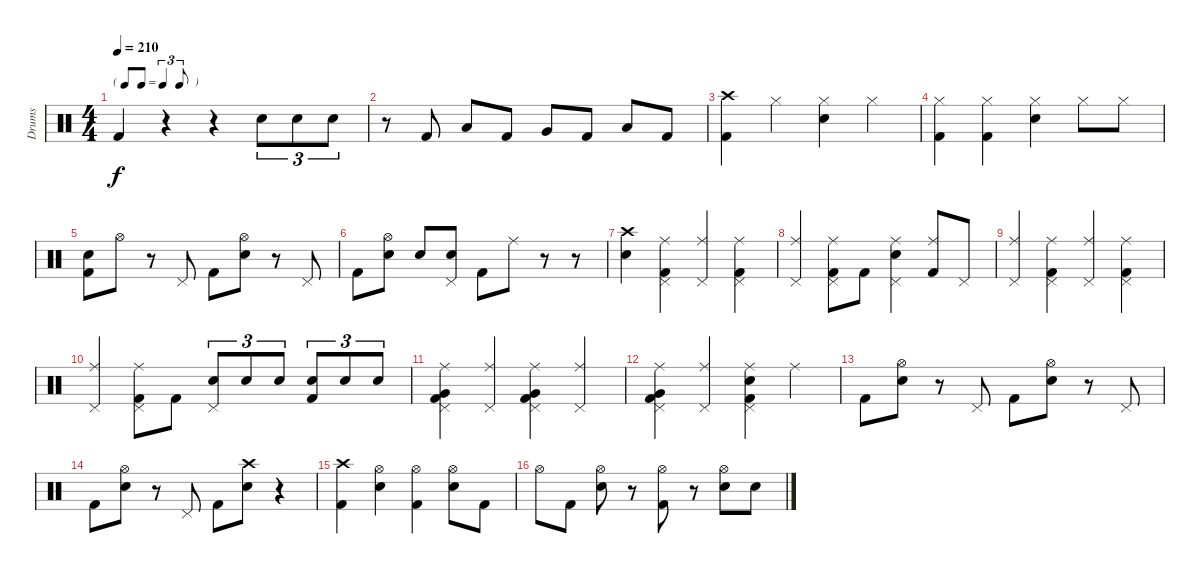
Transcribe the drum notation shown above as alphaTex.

\track ("Drums" "Drums") {instrument percussion}
\staff {score}
\articulation defaults
\ts (4 4)
\tf triplet8th
\tempo 210
\clef neutral
\ks c "Kick (hit) 2".4{dy f}
r.4 r.4 "Snare (hit) 2".8{tu (3 2)} "Snare (hit) 2".8{tu (3 2)} "Snare (hit) 2".8{tu (3 2)} |
r.8 "Kick (hit) 2".8 "Low Tom (hit)".8 "Kick (hit) 2".8 "Very Low Tom (hit)".8 "Kick (hit) 2".8 "Low Floor Tom (hit)".8 "Kick (hit) 2".8 |
("Crash high (hit)" "Kick (hit) 2").4 "Hi-Hat (closed)".4 ("Hi-Hat (closed)" "Snare (hit) 2").4 "Hi-Hat (closed)".4 |
("Hi-Hat (closed)" "Kick (hit) 2").4 ("Hi-Hat (closed)" "Kick (hit) 2").4 ("Hi-Hat (closed)" "Snare (hit) 2").4 "Hi-Hat (closed)".8 "Hi-Hat (closed)".8 |
("Snare (hit) 2" "Kick (hit) 2").8 "Hi-Hat (open)".8 r.8 "Pedal Hi-Hat (hit)".8 "Kick (hit) 2".8 ("Hi-Hat (open)" "Snare (hit) 2").8 r.8 "Pedal Hi-Hat (hit)".8 |
"Kick (hit) 2".8 ("Hi-Hat (open)" "Snare (hit) 2").8 "Snare (hit) 2".8 ("Pedal Hi-Hat (hit)" "Snare (hit) 2").8 "Kick (hit) 2".8 "Ride (middle)".8 r.8 r.8 |
("Crash high (hit)" "Snare (hit) 2").4 ("Ride (middle)" "Pedal Hi-Hat (hit)" "Kick (hit) 2").4 ("Ride (middle)" "Pedal Hi-Hat (hit)").4 ("Ride (middle)" "Pedal Hi-Hat (hit)" "Kick (hit) 2").4 |
("Ride (middle)" "Pedal Hi-Hat (hit)").4 ("Ride (middle)" "Pedal Hi-Hat (hit)" "Kick (hit) 2").8 "Kick (hit) 2".8 ("Ride (middle)" "Pedal Hi-Hat (hit)" "Snare (hit) 2").4 ("Ride (middle)" "Kick (hit) 2").8 "Pedal Hi-Hat (hit)".8 |
("Ride (middle)" "Pedal Hi-Hat (hit)").4 ("Ride (middle)" "Pedal Hi-Hat (hit)" "Kick (hit) 2").4 ("Ride (middle)" "Pedal Hi-Hat (hit)").4 ("Ride (middle)" "Pedal Hi-Hat (hit)" "Kick (hit) 2").4 |
("Ride (middle)" "Pedal Hi-Hat (hit)").4 ("Ride (middle)" "Pedal Hi-Hat (hit)" "Kick (hit) 2").8 "Kick (hit) 2".8 ("Pedal Hi-Hat (hit)" "Snare (hit) 2").8{tu (3 2)} "Snare (hit) 2".8{tu (3 2)} "Snare (hit) 2".8{tu (3 2)} ("Snare (hit) 2" "Kick (hit) 2").8{tu (3 2)} "Snare (hit) 2".8{tu (3 2)} "Snare (hit) 2".8{tu (3 2)} |
("Ride (middle)" "Pedal Hi-Hat (hit)" "Very Low Tom (hit)" "Kick (hit) 2").4 ("Ride (middle)" "Pedal Hi-Hat (hit)").4 ("Ride (middle)" "Pedal Hi-Hat (hit)" "Very Low Tom (hit)" "Kick (hit) 2").4 ("Ride (middle)" "Pedal Hi-Hat (hit)").4 |
("Ride (middle)" "Pedal Hi-Hat (hit)" "Very Low Tom (hit)" "Kick (hit) 2").4 ("Ride (middle)" "Pedal Hi-Hat (hit)").4 ("Ride (middle)" "Pedal Hi-Hat (hit)" "Snare (hit) 2" "Kick (hit) 2").4 "Ride (middle)".4 |
"Kick (hit) 2".8 ("Hi-Hat (open)" "Snare (hit) 2").8 r.8 "Pedal Hi-Hat (hit)".8 "Kick (hit) 2".8 ("Hi-Hat (open)" "Snare (hit) 2").8 r.8 "Pedal Hi-Hat (hit)".8 |
"Kick (hit) 2".8 ("Hi-Hat (open)" "Snare (hit) 2").8 r.8 "Pedal Hi-Hat (hit)".8 "Kick (hit) 2".8 ("Crash high (hit)" "Snare (hit) 2").8 r.4 |
("Crash high (hit)" "Kick (hit) 2").4 ("Hi-Hat (open)" "Snare (hit) 2").4 ("Hi-Hat (open)" "Kick (hit) 2").4 ("Hi-Hat (open)" "Snare (hit) 2").8 "Kick (hit) 2".8 |
"Hi-Hat (open)".8 "Kick (hit) 2".8 ("Hi-Hat (open)" "Snare (hit) 2").8 r.8 ("Hi-Hat (open)" "Kick (hit) 2").8 r.8 ("Hi-Hat (open)" "Snare (hit) 2").8 "Snare (hit) 2".8
